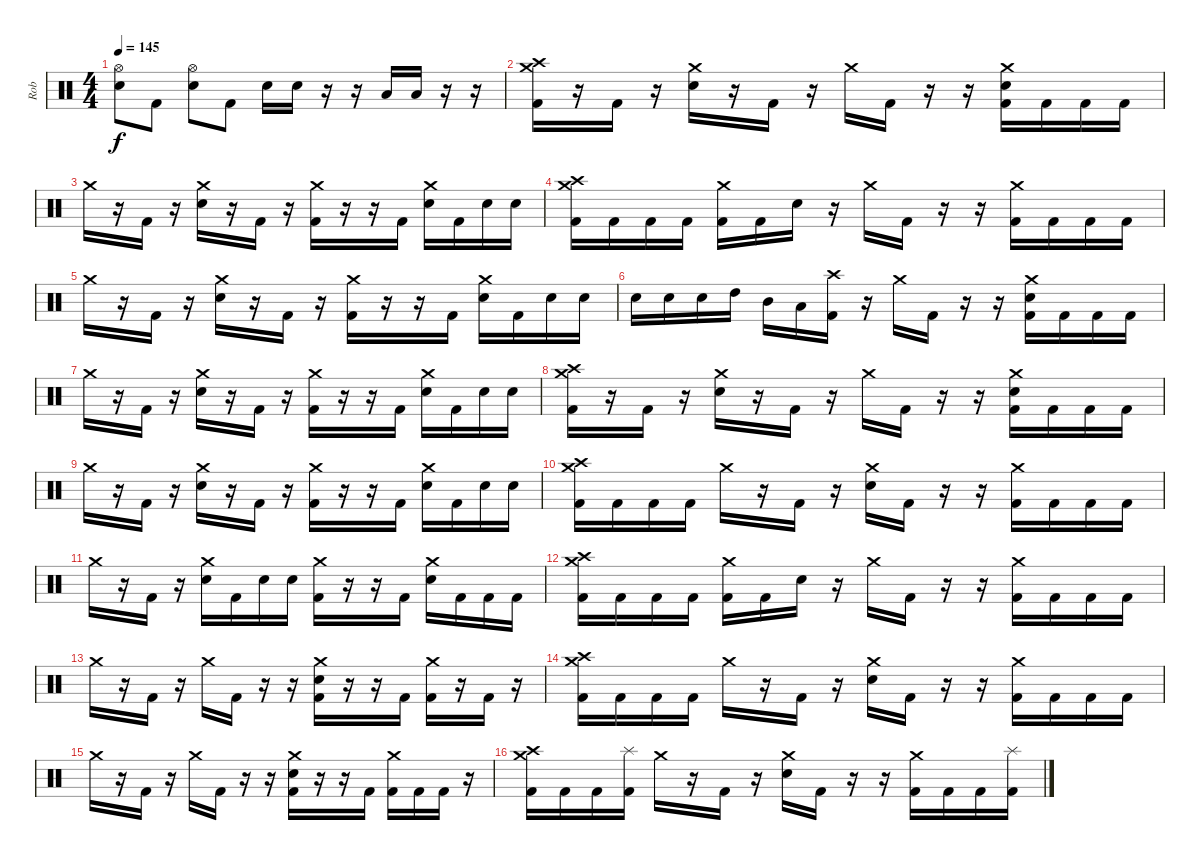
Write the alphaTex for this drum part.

\track ("Rob" "Rob") {instrument percussion}
\staff {score}
\articulation defaults
\ts (4 4)
\tempo 145
\clef neutral
\ks c
("Electric Snare (hit)" "Hi-Hat (open)").8{dy f} "Kick (hit) 2".8 ("Electric Snare (hit)" "Hi-Hat (open)").8 "Kick (hit) 2".8 "Electric Snare (hit)".16 "Electric Snare (hit)".16 r.16 r.16 "Low Tom (hit)".16 "Low Tom (hit)".16 r.16 r.16 |
("Crash high (hit)" "Kick (hit) 2" "Crash medium (hit)").16 r.16 "Kick (hit) 2".16 r.16 ("Electric Snare (hit)" "Crash medium (hit)").16 r.16 "Kick (hit) 2".16 r.16 "Crash medium (hit)".16 "Kick (hit) 2".16 r.16 r.16 ("Kick (hit) 2" "Electric Snare (hit)" "Crash medium (hit)").16 "Kick (hit) 2".16 "Kick (hit) 2".16 "Kick (hit) 2".16 |
"Crash medium (hit)".16 r.16 "Kick (hit) 2".16 r.16 ("Electric Snare (hit)" "Crash medium (hit)").16 r.16 "Kick (hit) 2".16 r.16 ("Kick (hit) 2" "Crash medium (hit)").16 r.16 r.16 "Kick (hit) 2".16 ("Electric Snare (hit)" "Crash medium (hit)").16 "Kick (hit) 2".16 "Electric Snare (hit)".16 "Electric Snare (hit)".16 |
("Crash high (hit)" "Kick (hit) 2" "Crash medium (hit)").16 "Kick (hit) 2".16 "Kick (hit) 2".16 "Kick (hit) 2".16 ("Kick (hit) 2" "Crash medium (hit)").16 "Kick (hit) 2".16 "Electric Snare (hit)".16 r.16 "Crash medium (hit)".16 "Kick (hit) 2".16 r.16 r.16 ("Kick (hit) 2" "Crash medium (hit)").16 "Kick (hit) 2".16 "Kick (hit) 2".16 "Kick (hit) 2".16 |
"Crash medium (hit)".16 r.16 "Kick (hit) 2".16 r.16 ("Electric Snare (hit)" "Crash medium (hit)").16 r.16 "Kick (hit) 2".16 r.16 ("Kick (hit) 2" "Crash medium (hit)").16 r.16 r.16 "Kick (hit) 2".16 ("Electric Snare (hit)" "Crash medium (hit)").16 "Kick (hit) 2".16 "Electric Snare (hit)".16 "Electric Snare (hit)".16 |
"Electric Snare (hit)".16 "Electric Snare (hit)".16 "Electric Snare (hit)".16 "High Tom (hit)".16 "Mid Tom (hit)".16 "Low Tom (hit)".16 ("Crash high (hit)" "Kick (hit) 2").16 r.16 "Crash medium (hit)".16 "Kick (hit) 2".16 r.16 r.16 ("Kick (hit) 2" "Electric Snare (hit)" "Crash medium (hit)").16 "Kick (hit) 2".16 "Kick (hit) 2".16 "Kick (hit) 2".16 |
"Crash medium (hit)".16 r.16 "Kick (hit) 2".16 r.16 ("Electric Snare (hit)" "Crash medium (hit)").16 r.16 "Kick (hit) 2".16 r.16 ("Kick (hit) 2" "Crash medium (hit)").16 r.16 r.16 "Kick (hit) 2".16 ("Electric Snare (hit)" "Crash medium (hit)").16 "Kick (hit) 2".16 "Electric Snare (hit)".16 "Electric Snare (hit)".16 |
("Crash high (hit)" "Kick (hit) 2" "Crash medium (hit)").16 r.16 "Kick (hit) 2".16 r.16 ("Electric Snare (hit)" "Crash medium (hit)").16 r.16 "Kick (hit) 2".16 r.16 "Crash medium (hit)".16 "Kick (hit) 2".16 r.16 r.16 ("Kick (hit) 2" "Electric Snare (hit)" "Crash medium (hit)").16 "Kick (hit) 2".16 "Kick (hit) 2".16 "Kick (hit) 2".16 |
"Crash medium (hit)".16 r.16 "Kick (hit) 2".16 r.16 ("Electric Snare (hit)" "Crash medium (hit)").16 r.16 "Kick (hit) 2".16 r.16 ("Kick (hit) 2" "Crash medium (hit)").16 r.16 r.16 "Kick (hit) 2".16 ("Electric Snare (hit)" "Crash medium (hit)").16 "Kick (hit) 2".16 "Electric Snare (hit)".16 "Electric Snare (hit)".16 |
("Crash high (hit)" "Kick (hit) 2" "Crash medium (hit)").16 "Kick (hit) 2".16 "Kick (hit) 2".16 "Kick (hit) 2".16 "Crash medium (hit)".16 r.16 "Kick (hit) 2".16 r.16 ("Electric Snare (hit)" "Crash medium (hit)").16 "Kick (hit) 2".16 r.16 r.16 ("Kick (hit) 2" "Crash medium (hit)").16 "Kick (hit) 2".16 "Kick (hit) 2".16 "Kick (hit) 2".16 |
"Crash medium (hit)".16 r.16 "Kick (hit) 2".16 r.16 ("Electric Snare (hit)" "Crash medium (hit)").16 "Kick (hit) 2".16 "Electric Snare (hit)".16 "Electric Snare (hit)".16 ("Kick (hit) 2" "Crash medium (hit)").16 r.16 r.16 "Kick (hit) 2".16 ("Electric Snare (hit)" "Crash medium (hit)").16 "Kick (hit) 2".16 "Kick (hit) 2".16 "Kick (hit) 2".16 |
("Crash high (hit)" "Kick (hit) 2" "Crash medium (hit)").16 "Kick (hit) 2".16 "Kick (hit) 2".16 "Kick (hit) 2".16 ("Kick (hit) 2" "Crash medium (hit)").16 "Kick (hit) 2".16 "Electric Snare (hit)".16 r.16 "Crash medium (hit)".16 "Kick (hit) 2".16 r.16 r.16 ("Kick (hit) 2" "Crash medium (hit)").16 "Kick (hit) 2".16 "Kick (hit) 2".16 "Kick (hit) 2".16 |
"Crash medium (hit)".16 r.16 "Kick (hit) 2".16 r.16 "Crash medium (hit)".16 "Kick (hit) 2".16 r.16 r.16 ("Electric Snare (hit)" "Kick (hit) 2" "Crash medium (hit)").16 r.16 r.16 "Kick (hit) 2".16 ("Kick (hit) 2" "Crash medium (hit)").16 r.16 "Kick (hit) 2".16 r.16 |
("Crash high (hit)" "Kick (hit) 2" "Crash medium (hit)").16 "Kick (hit) 2".16 "Kick (hit) 2".16 "Kick (hit) 2".16 "Crash medium (hit)".16 r.16 "Kick (hit) 2".16 r.16 ("Electric Snare (hit)" "Crash medium (hit)").16 "Kick (hit) 2".16 r.16 r.16 ("Kick (hit) 2" "Crash medium (hit)").16 "Kick (hit) 2".16 "Kick (hit) 2".16 "Kick (hit) 2".16 |
"Crash medium (hit)".16 r.16 "Kick (hit) 2".16 r.16 "Crash medium (hit)".16 "Kick (hit) 2".16 r.16 r.16 ("Electric Snare (hit)" "Kick (hit) 2" "Crash medium (hit)").16 r.16 r.16 "Kick (hit) 2".16 ("Kick (hit) 2" "Crash medium (hit)").16 "Kick (hit) 2".16 "Kick (hit) 2".16 r.16 |
("Crash high (hit)" "Kick (hit) 2" "Crash medium (hit)").16 "Kick (hit) 2".16 "Kick (hit) 2".16 ("Splash (hit)" "Kick (hit) 2").16 "Crash medium (hit)".16 r.16 "Kick (hit) 2".16 r.16 ("Electric Snare (hit)" "Crash medium (hit)").16 "Kick (hit) 2".16 r.16 r.16 ("Kick (hit) 2" "Crash medium (hit)").16 "Kick (hit) 2".16 "Kick (hit) 2".16 ("Splash (hit)" "Kick (hit) 2").16
